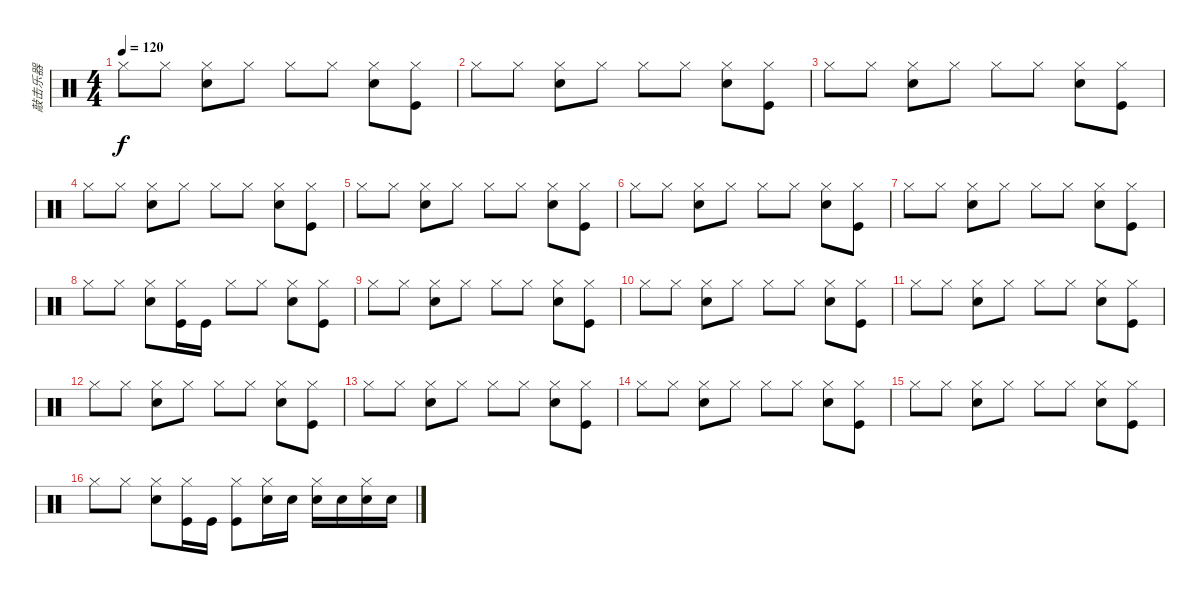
\track ("敲击乐器" "敲击乐器") {instrument percussion}
\staff {score}
\articulation defaults
\ts (4 4)
\tempo 120
\clef neutral
\ks c "Hi-Hat (closed)".8{dy f} "Hi-Hat (closed)".8
("Hi-Hat (closed)" "Snare (hit) 2").8 "Hi-Hat (closed)".8 "Hi-Hat (closed)".8 "Hi-Hat (closed)".8 ("Hi-Hat (closed)" "Snare (hit) 2").8 ("Hi-Hat (closed)" "Kick (hit)").8 |
"Hi-Hat (closed)".8 "Hi-Hat (closed)".8 ("Hi-Hat (closed)" "Snare (hit) 2").8 "Hi-Hat (closed)".8 "Hi-Hat (closed)".8 "Hi-Hat (closed)".8 ("Hi-Hat (closed)" "Snare (hit) 2").8 ("Hi-Hat (closed)" "Kick (hit)").8 |
"Hi-Hat (closed)".8 "Hi-Hat (closed)".8 ("Hi-Hat (closed)" "Snare (hit) 2").8 "Hi-Hat (closed)".8 "Hi-Hat (closed)".8 "Hi-Hat (closed)".8 ("Hi-Hat (closed)" "Snare (hit) 2").8 ("Hi-Hat (closed)" "Kick (hit)").8 |
"Hi-Hat (closed)".8 "Hi-Hat (closed)".8 ("Hi-Hat (closed)" "Snare (hit) 2").8 "Hi-Hat (closed)".8 "Hi-Hat (closed)".8 "Hi-Hat (closed)".8 ("Hi-Hat (closed)" "Snare (hit) 2").8 ("Hi-Hat (closed)" "Kick (hit)").8 |
"Hi-Hat (closed)".8 "Hi-Hat (closed)".8 ("Hi-Hat (closed)" "Snare (hit) 2").8 "Hi-Hat (closed)".8 "Hi-Hat (closed)".8 "Hi-Hat (closed)".8 ("Hi-Hat (closed)" "Snare (hit) 2").8 ("Hi-Hat (closed)" "Kick (hit)").8 |
"Hi-Hat (closed)".8 "Hi-Hat (closed)".8 ("Hi-Hat (closed)" "Snare (hit) 2").8 "Hi-Hat (closed)".8 "Hi-Hat (closed)".8 "Hi-Hat (closed)".8 ("Hi-Hat (closed)" "Snare (hit) 2").8 ("Hi-Hat (closed)" "Kick (hit)").8 |
"Hi-Hat (closed)".8 "Hi-Hat (closed)".8 ("Hi-Hat (closed)" "Snare (hit) 2").8 "Hi-Hat (closed)".8 "Hi-Hat (closed)".8 "Hi-Hat (closed)".8 ("Hi-Hat (closed)" "Snare (hit) 2").8 ("Hi-Hat (closed)" "Kick (hit)").8 |
"Hi-Hat (closed)".8 "Hi-Hat (closed)".8 ("Hi-Hat (closed)" "Snare (hit) 2").8 ("Hi-Hat (closed)" "Kick (hit)").16 "Kick (hit)".16 "Hi-Hat (closed)".8 "Hi-Hat (closed)".8 ("Hi-Hat (closed)" "Snare (hit) 2").8 ("Hi-Hat (closed)" "Kick (hit)").8 |
"Hi-Hat (closed)".8 "Hi-Hat (closed)".8 ("Hi-Hat (closed)" "Snare (hit) 2").8 "Hi-Hat (closed)".8 "Hi-Hat (closed)".8 "Hi-Hat (closed)".8 ("Hi-Hat (closed)" "Snare (hit) 2").8 ("Hi-Hat (closed)" "Kick (hit)").8 |
"Hi-Hat (closed)".8 "Hi-Hat (closed)".8 ("Hi-Hat (closed)" "Snare (hit) 2").8 "Hi-Hat (closed)".8 "Hi-Hat (closed)".8 "Hi-Hat (closed)".8 ("Hi-Hat (closed)" "Snare (hit) 2").8 ("Hi-Hat (closed)" "Kick (hit)").8 |
"Hi-Hat (closed)".8 "Hi-Hat (closed)".8 ("Hi-Hat (closed)" "Snare (hit) 2").8 "Hi-Hat (closed)".8 "Hi-Hat (closed)".8 "Hi-Hat (closed)".8 ("Hi-Hat (closed)" "Snare (hit) 2").8 ("Hi-Hat (closed)" "Kick (hit)").8 |
"Hi-Hat (closed)".8 "Hi-Hat (closed)".8 ("Hi-Hat (closed)" "Snare (hit) 2").8 "Hi-Hat (closed)".8 "Hi-Hat (closed)".8 "Hi-Hat (closed)".8 ("Hi-Hat (closed)" "Snare (hit) 2").8 ("Hi-Hat (closed)" "Kick (hit)").8 |
"Hi-Hat (closed)".8 "Hi-Hat (closed)".8 ("Hi-Hat (closed)" "Snare (hit) 2").8 "Hi-Hat (closed)".8 "Hi-Hat (closed)".8 "Hi-Hat (closed)".8 ("Hi-Hat (closed)" "Snare (hit) 2").8 ("Hi-Hat (closed)" "Kick (hit)").8 |
"Hi-Hat (closed)".8 "Hi-Hat (closed)".8 ("Hi-Hat (closed)" "Snare (hit) 2").8 "Hi-Hat (closed)".8 "Hi-Hat (closed)".8 "Hi-Hat (closed)".8 ("Hi-Hat (closed)" "Snare (hit) 2").8 ("Hi-Hat (closed)" "Kick (hit)").8 |
"Hi-Hat (closed)".8 "Hi-Hat (closed)".8 ("Hi-Hat (closed)" "Snare (hit) 2").8 "Hi-Hat (closed)".8 "Hi-Hat (closed)".8 "Hi-Hat (closed)".8 ("Hi-Hat (closed)" "Snare (hit) 2").8 ("Hi-Hat (closed)" "Kick (hit)").8 |
"Hi-Hat (closed)".8 "Hi-Hat (closed)".8 ("Hi-Hat (closed)" "Snare (hit) 2").8 ("Hi-Hat (closed)" "Kick (hit)").16 "Kick (hit)".16 ("Hi-Hat (closed)" "Kick (hit)").8 ("Hi-Hat (closed)" "Snare (hit) 2").16 "Snare (hit) 2".16 ("Hi-Hat (closed)" "Snare (hit) 2").16 "Snare (hit) 2".16 ("Hi-Hat (closed)" "Snare (hit) 2").16 "Snare (hit) 2".16
